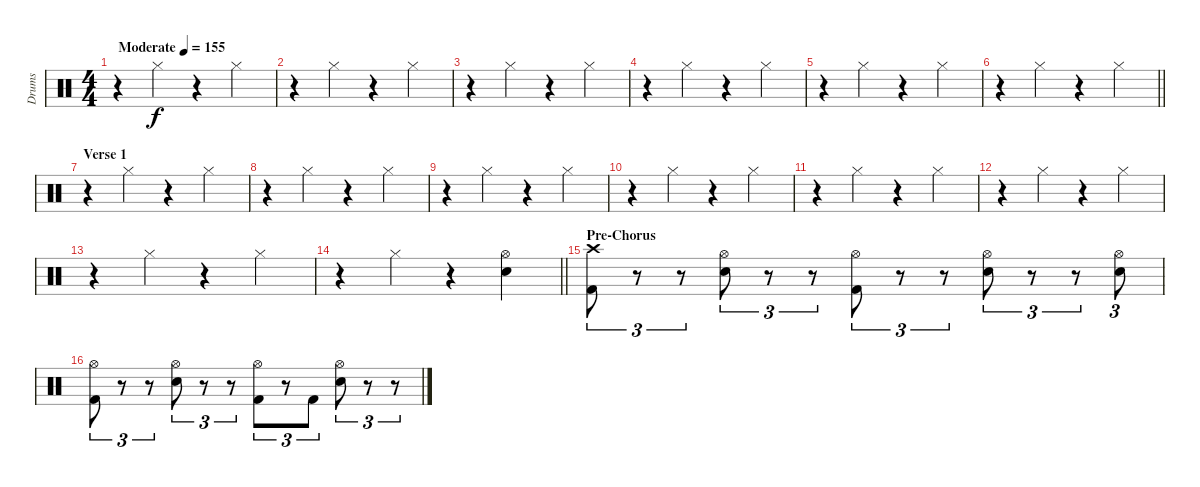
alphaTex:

\track ("Drums" "Drums") {instrument percussion}
\staff {score}
\articulation defaults
\ts (4 4)
\tempo (155 "Moderate")
\clef neutral
\ks c
r.4{dy f} "Hi-Hat (closed)".4 r.4 "Hi-Hat (closed)".4 |
r.4 "Hi-Hat (closed)".4 r.4 "Hi-Hat (closed)".4 |
r.4 "Hi-Hat (closed)".4 r.4 "Hi-Hat (closed)".4 |
r.4 "Hi-Hat (closed)".4 r.4 "Hi-Hat (closed)".4 |
r.4 "Hi-Hat (closed)".4 r.4 "Hi-Hat (closed)".4 |
\barLineRight lightlight
r.4 "Hi-Hat (closed)".4 r.4 "Hi-Hat (closed)".4 |
\section ("" "Verse 1")
r.4 "Hi-Hat (closed)".4 r.4 "Hi-Hat (closed)".4 |
r.4 "Hi-Hat (closed)".4 r.4 "Hi-Hat (closed)".4 |
r.4 "Hi-Hat (closed)".4 r.4 "Hi-Hat (closed)".4 |
r.4 "Hi-Hat (closed)".4 r.4 "Hi-Hat (closed)".4 |
r.4 "Hi-Hat (closed)".4 r.4 "Hi-Hat (closed)".4 |
r.4 "Hi-Hat (closed)".4 r.4 "Hi-Hat (closed)".4 |
r.4 "Hi-Hat (closed)".4 r.4 "Hi-Hat (closed)".4 |
\barLineRight lightlight
r.4 "Hi-Hat (closed)".4 r.4 ("Hi-Hat (open)" "Snare (hit) 2").4 |
\section ("" "Pre-Chorus")
("Crash high (hit)" "Kick (hit) 2").8{tu (3 2)} r.8{tu (3 2)} r.8{tu (3 2)} ("Hi-Hat (open)" "Snare (hit) 2").8{tu (3 2)} r.8{tu (3 2)} r.8{tu (3 2)} ("Hi-Hat (open)" "Kick (hit) 2").8{tu (3 2)} r.8{tu (3 2)} r.8{tu (3 2)} ("Hi-Hat (open)" "Snare (hit) 2").8{tu (3 2)} r.8{tu (3 2)} r.8{tu (3 2)} ("Hi-Hat (open)" "Snare (hit) 2").8{tu (3 2)} |
("Hi-Hat (open)" "Kick (hit) 2").8{tu (3 2)} r.8{tu (3 2)} r.8{tu (3 2)} ("Hi-Hat (open)" "Snare (hit) 2").8{tu (3 2)} r.8{tu (3 2)} r.8{tu (3 2)} ("Hi-Hat (open)" "Kick (hit) 2").8{tu (3 2)} r.8{tu (3 2)} "Kick (hit) 2".8{tu (3 2)} ("Hi-Hat (open)" "Snare (hit) 2").8{tu (3 2)} r.8{tu (3 2)} r.8{tu (3 2)}
